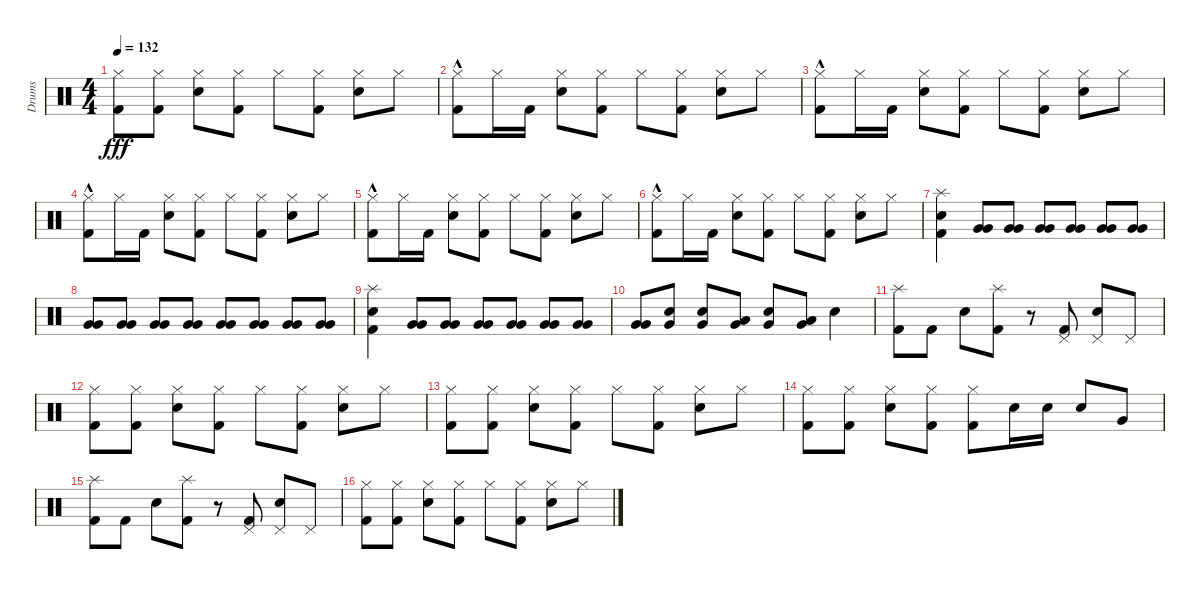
\track ("Drums" "Drums") {instrument percussion}
\staff {score}
\articulation defaults
\ts (4 4)
\tempo 132
\clef neutral
\ks c
("Hi-Hat (closed)" "Kick (hit) 2").8{dy fff} ("Hi-Hat (closed)" "Kick (hit) 2").8 ("Hi-Hat (closed)" "Electric Snare (hit)").8 ("Hi-Hat (closed)" "Kick (hit) 2").8 "Hi-Hat (closed)".8 ("Hi-Hat (closed)" "Kick (hit) 2").8 ("Hi-Hat (closed)" "Electric Snare (hit)").8 "Hi-Hat (closed)".8 |
("Hi-Hat (closed)" "Kick (hit) 2"{hac}).8 "Hi-Hat (closed)".16 "Kick (hit) 2".16 ("Hi-Hat (closed)" "Electric Snare (hit)").8 ("Hi-Hat (closed)" "Kick (hit) 2").8 "Hi-Hat (closed)".8 ("Kick (hit) 2" "Hi-Hat (closed)").8 ("Hi-Hat (closed)" "Electric Snare (hit)").8 "Hi-Hat (closed)".8 |
("Hi-Hat (closed)" "Kick (hit) 2"{hac}).8 "Hi-Hat (closed)".16 "Kick (hit) 2".16 ("Hi-Hat (closed)" "Electric Snare (hit)").8 ("Hi-Hat (closed)" "Kick (hit) 2").8 "Hi-Hat (closed)".8 ("Kick (hit) 2" "Hi-Hat (closed)").8 ("Hi-Hat (closed)" "Electric Snare (hit)").8 "Hi-Hat (closed)".8 |
("Hi-Hat (closed)" "Kick (hit) 2"{hac}).8 "Hi-Hat (closed)".16 "Kick (hit) 2".16 ("Hi-Hat (closed)" "Electric Snare (hit)").8 ("Hi-Hat (closed)" "Kick (hit) 2").8 "Hi-Hat (closed)".8 ("Kick (hit) 2" "Hi-Hat (closed)").8 ("Hi-Hat (closed)" "Electric Snare (hit)").8 "Hi-Hat (closed)".8 |
("Hi-Hat (closed)" "Kick (hit) 2"{hac}).8 "Hi-Hat (closed)".16 "Kick (hit) 2".16 ("Hi-Hat (closed)" "Electric Snare (hit)").8 ("Hi-Hat (closed)" "Kick (hit) 2").8 "Hi-Hat (closed)".8 ("Kick (hit) 2" "Hi-Hat (closed)").8 ("Hi-Hat (closed)" "Electric Snare (hit)").8 "Hi-Hat (closed)".8 |
("Hi-Hat (closed)" "Kick (hit) 2"{hac}).8 "Hi-Hat (closed)".16 "Kick (hit) 2".16 ("Hi-Hat (closed)" "Electric Snare (hit)").8 ("Hi-Hat (closed)" "Kick (hit) 2").8 "Hi-Hat (closed)".8 ("Kick (hit) 2" "Hi-Hat (closed)").8 ("Hi-Hat (closed)" "Electric Snare (hit)").8 "Hi-Hat (closed)".8 |
("Kick (hit) 2" "Electric Snare (hit)" "Splash (hit)").4 ("Very Low Tom (hit)" "Very Low Tom (hit)").8 ("Very Low Tom (hit)" "Very Low Tom (hit)").8 ("Very Low Tom (hit)" "Very Low Tom (hit)").8 ("Very Low Tom (hit)" "Very Low Tom (hit)").8 ("Very Low Tom (hit)" "Very Low Tom (hit)").8 ("Very Low Tom (hit)" "Very Low Tom (hit)").8 |
("Very Low Tom (hit)" "Very Low Tom (hit)").8 ("Very Low Tom (hit)" "Very Low Tom (hit)").8 ("Very Low Tom (hit)" "Very Low Tom (hit)").8 ("Very Low Tom (hit)" "Very Low Tom (hit)").8 ("Very Low Tom (hit)" "Very Low Tom (hit)").8 ("Very Low Tom (hit)" "Very Low Tom (hit)").8 ("Very Low Tom (hit)" "Very Low Tom (hit)").8 ("Very Low Tom (hit)" "Very Low Tom (hit)").8 |
("Electric Snare (hit)" "Splash (hit)" "Kick (hit) 2").4 ("Very Low Tom (hit)" "Very Low Tom (hit)").8 ("Very Low Tom (hit)" "Very Low Tom (hit)").8 ("Very Low Tom (hit)" "Very Low Tom (hit)").8 ("Very Low Tom (hit)" "Very Low Tom (hit)").8 ("Very Low Tom (hit)" "Very Low Tom (hit)").8 ("Very Low Tom (hit)" "Very Low Tom (hit)").8 |
("Very Low Tom (hit)" "Very Low Tom (hit)").8 ("Very Low Tom (hit)" "Electric Snare (hit)").8 ("Very Low Tom (hit)" "Electric Snare (hit)").8 ("Low Floor Tom (hit)" "Very Low Tom (hit)").8 ("Electric Snare (hit)" "Very Low Tom (hit)").8 ("Low Floor Tom (hit)" "Very Low Tom (hit)").8 "Electric Snare (hit)".4 |
("Kick (hit) 2" "Splash (hit)").8 "Kick (hit) 2".8 "Electric Snare (hit)".8 ("Splash (hit)" "Kick (hit) 2").8 r.8 ("Kick (hit) 2" "Pedal Hi-Hat (hit)").8 ("Electric Snare (hit)" "Pedal Hi-Hat (hit)").8 "Pedal Hi-Hat (hit)".8 |
("Hi-Hat (closed)" "Kick (hit) 2").8 ("Hi-Hat (closed)" "Kick (hit) 2").8 ("Hi-Hat (closed)" "Electric Snare (hit)").8 ("Hi-Hat (closed)" "Kick (hit) 2").8 "Hi-Hat (closed)".8 ("Hi-Hat (closed)" "Kick (hit) 2").8 ("Hi-Hat (closed)" "Electric Snare (hit)").8 "Hi-Hat (closed)".8 |
("Hi-Hat (closed)" "Kick (hit) 2").8 ("Hi-Hat (closed)" "Kick (hit) 2").8 ("Hi-Hat (closed)" "Electric Snare (hit)").8 ("Hi-Hat (closed)" "Kick (hit) 2").8 "Hi-Hat (closed)".8 ("Hi-Hat (closed)" "Kick (hit) 2").8 ("Hi-Hat (closed)" "Electric Snare (hit)").8 "Hi-Hat (closed)".8 |
("Hi-Hat (closed)" "Kick (hit) 2").8 ("Hi-Hat (closed)" "Kick (hit) 2").8 ("Hi-Hat (closed)" "Electric Snare (hit)").8 ("Hi-Hat (closed)" "Kick (hit) 2").8 ("Kick (hit) 2" "Hi-Hat (closed)").8 "Electric Snare (hit)".16 "Electric Snare (hit)".16 "Electric Snare (hit)".8 "Very Low Tom (hit)".8 |
("Kick (hit) 2" "Splash (hit)").8 "Kick (hit) 2".8 "Electric Snare (hit)".8 ("Splash (hit)" "Kick (hit) 2").8 r.8 ("Kick (hit) 2" "Pedal Hi-Hat (hit)").8 ("Electric Snare (hit)" "Pedal Hi-Hat (hit)").8 "Pedal Hi-Hat (hit)".8 |
("Hi-Hat (closed)" "Kick (hit) 2").8 ("Hi-Hat (closed)" "Kick (hit) 2").8 ("Hi-Hat (closed)" "Electric Snare (hit)").8 ("Hi-Hat (closed)" "Kick (hit) 2").8 "Hi-Hat (closed)".8 ("Hi-Hat (closed)" "Kick (hit) 2").8 ("Hi-Hat (closed)" "Electric Snare (hit)").8 "Hi-Hat (closed)".8
